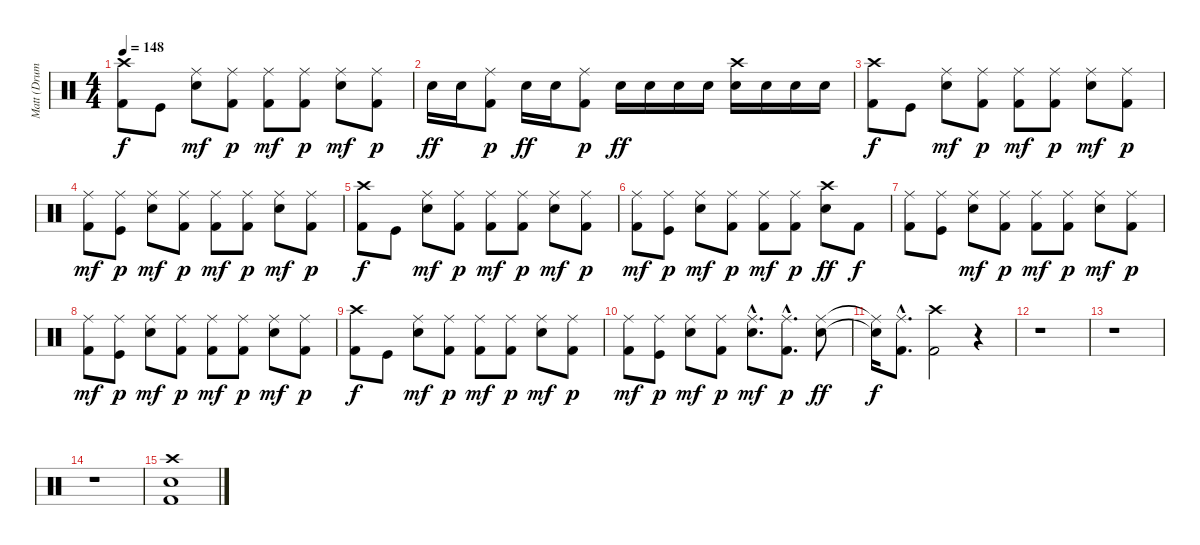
\track ("Matt (Drums)" "Matt (Drum") {instrument percussion}
\staff {score}
\articulation defaults
\ts (4 4)
\tempo 148
\clef neutral
\ks c
("Kick (hit) 2" "Crash high (hit)").8{dy f} "Kick (hit)".8 ("Electric Snare (hit)" "Ride (middle)").8{dy mf} ("Kick (hit) 2" "Ride (middle)").8{dy p} ("Kick (hit) 2" "Ride (middle)").8{dy mf} ("Kick (hit) 2" "Ride (middle)").8{dy p} ("Electric Snare (hit)" "Ride (middle)").8{dy mf} ("Kick (hit) 2" "Ride (middle)").8{dy p} |
"Electric Snare (hit)".16{dy ff} "Electric Snare (hit)".16 ("Kick (hit) 2" "Ride (middle)").8{dy p} "Electric Snare (hit)".16{dy ff} "Electric Snare (hit)".16 ("Kick (hit) 2" "Ride (middle)").8{dy p} "Electric Snare (hit)".16{dy ff} "Electric Snare (hit)".16 "Electric Snare (hit)".16 "Electric Snare (hit)".16 ("Electric Snare (hit)" "Crash high (hit)").16 "Electric Snare (hit)".16 "Electric Snare (hit)".16 "Electric Snare (hit)".16 |
("Kick (hit) 2" "Crash high (hit)").8{dy f} "Kick (hit)".8 ("Electric Snare (hit)" "Ride (middle)").8{dy mf} ("Kick (hit) 2" "Ride (middle)").8{dy p} ("Kick (hit) 2" "Ride (middle)").8{dy mf} ("Kick (hit) 2" "Ride (middle)").8{dy p} ("Electric Snare (hit)" "Ride (middle)").8{dy mf} ("Kick (hit) 2" "Ride (middle)").8{dy p} |
("Kick (hit) 2" "Ride (middle)").8{dy mf} ("Kick (hit)" "Ride (middle)").8{dy p} ("Electric Snare (hit)" "Ride (middle)").8{dy mf} ("Kick (hit) 2" "Ride (middle)").8{dy p} ("Kick (hit) 2" "Ride (middle)").8{dy mf} ("Kick (hit) 2" "Ride (middle)").8{dy p} ("Electric Snare (hit)" "Ride (middle)").8{dy mf} ("Kick (hit) 2" "Ride (middle)").8{dy p} |
("Kick (hit) 2" "Crash high (hit)").8{dy f} "Kick (hit)".8 ("Electric Snare (hit)" "Ride (middle)").8{dy mf} ("Kick (hit) 2" "Ride (middle)").8{dy p} ("Kick (hit) 2" "Ride (middle)").8{dy mf} ("Kick (hit) 2" "Ride (middle)").8{dy p} ("Electric Snare (hit)" "Ride (middle)").8{dy mf} ("Kick (hit) 2" "Ride (middle)").8{dy p} |
("Kick (hit) 2" "Ride (middle)").8{dy mf} ("Kick (hit)" "Ride (middle)").8{dy p} ("Electric Snare (hit)" "Ride (middle)").8{dy mf} ("Kick (hit) 2" "Ride (middle)").8{dy p} ("Kick (hit) 2" "Ride (middle)").8{dy mf} ("Kick (hit) 2" "Ride (middle)").8{dy p} ("Electric Snare (hit)" "Crash high (hit)").8{dy ff} "Kick (hit) 2".8{dy f} |
("Kick (hit) 2" "Ride (middle)").8 ("Kick (hit)" "Ride (middle)").8 ("Electric Snare (hit)" "Ride (middle)").8{dy mf} ("Kick (hit) 2" "Ride (middle)").8{dy p} ("Kick (hit) 2" "Ride (middle)").8{dy mf} ("Kick (hit) 2" "Ride (middle)").8{dy p} ("Electric Snare (hit)" "Ride (middle)").8{dy mf} ("Kick (hit) 2" "Ride (middle)").8{dy p} |
("Kick (hit) 2" "Ride (middle)").8{dy mf} ("Kick (hit)" "Ride (middle)").8{dy p} ("Electric Snare (hit)" "Ride (middle)").8{dy mf} ("Kick (hit) 2" "Ride (middle)").8{dy p} ("Kick (hit) 2" "Ride (middle)").8{dy mf} ("Kick (hit) 2" "Ride (middle)").8{dy p} ("Electric Snare (hit)" "Ride (middle)").8{dy mf} ("Kick (hit) 2" "Ride (middle)").8{dy p} |
("Kick (hit) 2" "Crash high (hit)").8{dy f} "Kick (hit)".8 ("Electric Snare (hit)" "Ride (middle)").8{dy mf} ("Kick (hit) 2" "Ride (middle)").8{dy p} ("Kick (hit) 2" "Ride (middle)").8{dy mf} ("Kick (hit) 2" "Ride (middle)").8{dy p} ("Electric Snare (hit)" "Ride (middle)").8{dy mf} ("Kick (hit) 2" "Ride (middle)").8{dy p} |
("Kick (hit) 2" "Ride (middle)").8{dy mf} ("Kick (hit)" "Ride (middle)").8{dy p} ("Electric Snare (hit)" "Ride (middle)").8{dy mf} ("Kick (hit) 2" "Ride (middle)").8{dy p} ("Electric Snare (hit)"{hac} "Ride (middle)"{hac}).8{d dy mf} ("Kick (hit) 2"{hac} "Ride (middle)"{hac}).8{d dy p} ("Electric Snare (hit)" "Ride (middle)").8{dy ff} |
("Electric Snare (hit)"{t} "Ride (middle)"{t}).16{dy f} ("Kick (hit) 2"{hac} "Ride (middle)"{hac}).8{d} ("Kick (hit) 2" "Crash high (hit)").2 r.4 |
r.1 |
r.1 |
r.1 |
("Electric Snare (hit)" "Kick (hit) 2" "Crash high (hit)").1
